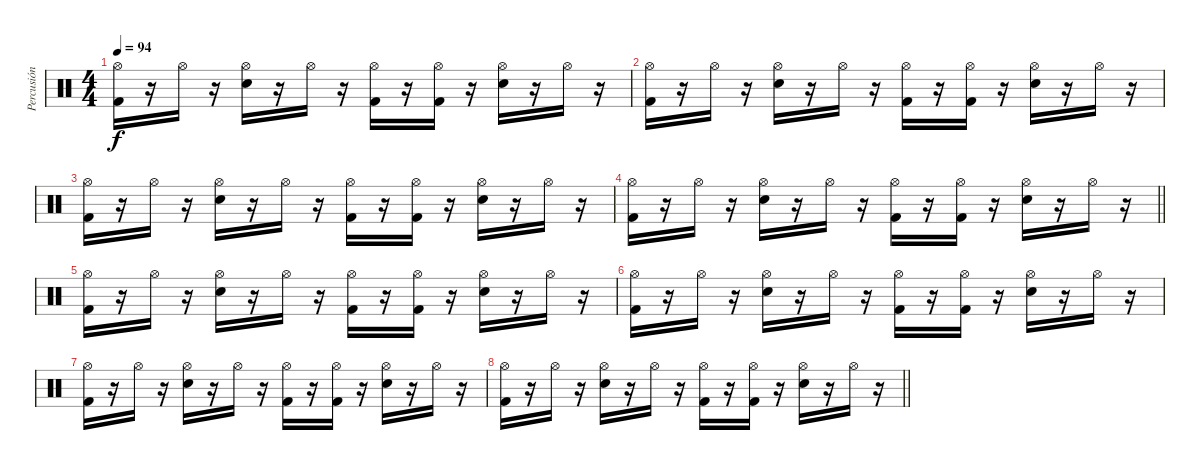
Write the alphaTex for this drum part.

\track ("Percusión" "Percusión") {instrument percussion}
\staff {score}
\articulation defaults
\ts (4 4)
\tempo 94
\clef neutral
\ks c
("Hi-Hat (open)" "Kick (hit) 2").16{dy f} r.16 "Hi-Hat (open)".16 r.16 ("Hi-Hat (open)" "Electric Snare (hit)").16 r.16 "Hi-Hat (open)".16 r.16 ("Hi-Hat (open)" "Kick (hit) 2").16 r.16 ("Hi-Hat (open)" "Kick (hit) 2").16 r.16 ("Hi-Hat (open)" "Electric Snare (hit)").16 r.16 "Hi-Hat (open)".16 r.16 |
("Hi-Hat (open)" "Kick (hit) 2").16 r.16 "Hi-Hat (open)".16 r.16 ("Hi-Hat (open)" "Electric Snare (hit)").16 r.16 "Hi-Hat (open)".16 r.16 ("Hi-Hat (open)" "Kick (hit) 2").16 r.16 ("Hi-Hat (open)" "Kick (hit) 2").16 r.16 ("Hi-Hat (open)" "Electric Snare (hit)").16 r.16 "Hi-Hat (open)".16 r.16 |
("Hi-Hat (open)" "Kick (hit) 2").16 r.16 "Hi-Hat (open)".16 r.16 ("Hi-Hat (open)" "Electric Snare (hit)").16 r.16 "Hi-Hat (open)".16 r.16 ("Hi-Hat (open)" "Kick (hit) 2").16 r.16 ("Hi-Hat (open)" "Kick (hit) 2").16 r.16 ("Hi-Hat (open)" "Electric Snare (hit)").16 r.16 "Hi-Hat (open)".16 r.16 |
\barLineRight lightlight
("Hi-Hat (open)" "Kick (hit) 2").16 r.16 "Hi-Hat (open)".16 r.16 ("Hi-Hat (open)" "Electric Snare (hit)").16 r.16 "Hi-Hat (open)".16 r.16 ("Hi-Hat (open)" "Kick (hit) 2").16 r.16 ("Hi-Hat (open)" "Kick (hit) 2").16 r.16 ("Hi-Hat (open)" "Electric Snare (hit)").16 r.16 "Hi-Hat (open)".16 r.16 |
("Hi-Hat (open)" "Kick (hit) 2").16 r.16 "Hi-Hat (open)".16 r.16 ("Hi-Hat (open)" "Electric Snare (hit)").16 r.16 "Hi-Hat (open)".16 r.16 ("Hi-Hat (open)" "Kick (hit) 2").16 r.16 ("Hi-Hat (open)" "Kick (hit) 2").16 r.16 ("Hi-Hat (open)" "Electric Snare (hit)").16 r.16 "Hi-Hat (open)".16 r.16 |
("Hi-Hat (open)" "Kick (hit) 2").16 r.16 "Hi-Hat (open)".16 r.16 ("Hi-Hat (open)" "Electric Snare (hit)").16 r.16 "Hi-Hat (open)".16 r.16 ("Hi-Hat (open)" "Kick (hit) 2").16 r.16 ("Hi-Hat (open)" "Kick (hit) 2").16 r.16 ("Hi-Hat (open)" "Electric Snare (hit)").16 r.16 "Hi-Hat (open)".16 r.16 |
("Hi-Hat (open)" "Kick (hit) 2").16 r.16 "Hi-Hat (open)".16 r.16 ("Hi-Hat (open)" "Electric Snare (hit)").16 r.16 "Hi-Hat (open)".16 r.16 ("Hi-Hat (open)" "Kick (hit) 2").16 r.16 ("Hi-Hat (open)" "Kick (hit) 2").16 r.16 ("Hi-Hat (open)" "Electric Snare (hit)").16 r.16 "Hi-Hat (open)".16 r.16 |
\barLineRight lightlight
("Hi-Hat (open)" "Kick (hit) 2").16 r.16 "Hi-Hat (open)".16 r.16 ("Hi-Hat (open)" "Electric Snare (hit)").16 r.16 "Hi-Hat (open)".16 r.16 ("Hi-Hat (open)" "Kick (hit) 2").16 r.16 ("Hi-Hat (open)" "Kick (hit) 2").16 r.16 ("Hi-Hat (open)" "Electric Snare (hit)").16 r.16 "Hi-Hat (open)".16 r.16
